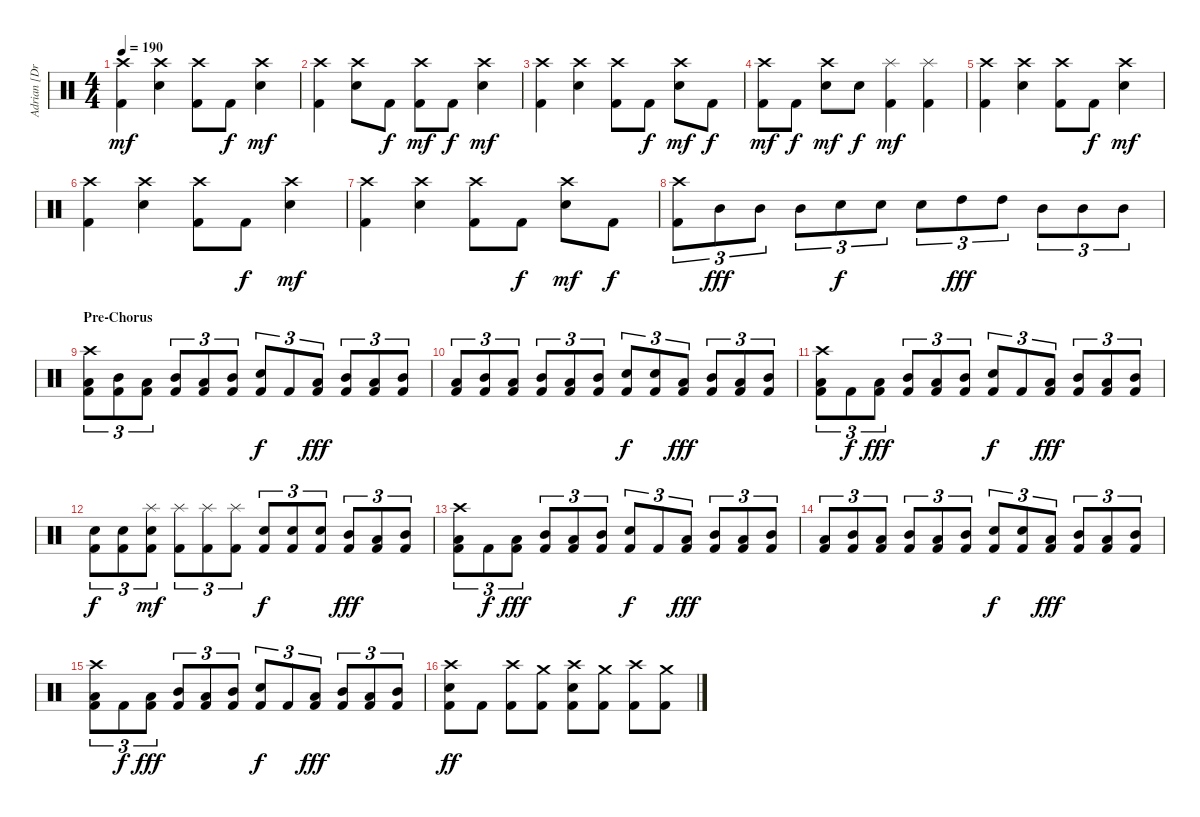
\track ("Adrian [Drums]" "Adrian [Dr") {instrument percussion}
\staff {score}
\articulation defaults
\ts (4 4)
\tempo 190
\clef neutral
\ks c
("Crash high (hit)" "Kick (hit) 2").4{dy mf} ("Crash high (hit)" "Electric Snare (hit)").4 ("Crash high (hit)" "Kick (hit) 2").8 "Kick (hit) 2".8{dy f} ("Crash high (hit)" "Electric Snare (hit)").4{dy mf} |
("Crash high (hit)" "Kick (hit) 2").4 ("Crash high (hit)" "Electric Snare (hit)").8 "Kick (hit) 2".8{dy f} ("Crash high (hit)" "Kick (hit) 2").8{dy mf} "Kick (hit) 2".8{dy f} ("Crash high (hit)" "Electric Snare (hit)").4{dy mf} |
("Crash high (hit)" "Kick (hit) 2").4 ("Crash high (hit)" "Electric Snare (hit)").4 ("Crash high (hit)" "Kick (hit) 2").8 "Kick (hit) 2".8{dy f} ("Crash high (hit)" "Electric Snare (hit)").8{dy mf} "Kick (hit) 2".8{dy f} |
("Crash high (hit)" "Kick (hit) 2").8{dy mf} "Kick (hit) 2".8{dy f} ("Crash high (hit)" "Electric Snare (hit)").8{dy mf} "Electric Snare (hit)".8{dy f} ("Splash (hit)" "Kick (hit) 2").4{dy mf} ("Splash (hit)" "Kick (hit) 2").4 |
("Crash high (hit)" "Kick (hit) 2").4 ("Crash high (hit)" "Electric Snare (hit)").4 ("Crash high (hit)" "Kick (hit) 2").8 "Kick (hit) 2".8{dy f} ("Crash high (hit)" "Electric Snare (hit)").4{dy mf} |
("Crash high (hit)" "Kick (hit) 2").4 ("Crash high (hit)" "Electric Snare (hit)").4 ("Crash high (hit)" "Kick (hit) 2").8 "Kick (hit) 2".8{dy f} ("Crash high (hit)" "Electric Snare (hit)").4{dy mf} |
("Crash high (hit)" "Kick (hit) 2").4 ("Crash high (hit)" "Electric Snare (hit)").4 ("Crash high (hit)" "Kick (hit) 2").8 "Kick (hit) 2".8{dy f} ("Crash high (hit)" "Electric Snare (hit)").8{dy mf} "Kick (hit) 2".8{dy f} |
("Crash high (hit)" "Kick (hit) 2").8{tu (3 2)} "Mid Tom (hit)".8{tu (3 2) dy fff} "Mid Tom (hit)".8{tu (3 2)} "Mid Tom (hit)".8{tu (3 2)} "Electric Snare (hit)".8{tu (3 2) dy f} "Electric Snare (hit)".8{tu (3 2)} "Electric Snare (hit)".8{tu (3 2)} "High Tom (hit)".8{tu (3 2) dy fff} "High Tom (hit)".8{tu (3 2)} "Mid Tom (hit)".8{tu (3 2)} "Mid Tom (hit)".8{tu (3 2)} "Mid Tom (hit)".8{tu (3 2)} |
\section ("" "Pre-Chorus")
("Crash high (hit)" "Low Tom (hit)" "Kick (hit) 2").8{tu (3 2)} ("Mid Tom (hit)" "Kick (hit) 2").8{tu (3 2)} ("Low Tom (hit)" "Kick (hit) 2").8{tu (3 2)} ("Mid Tom (hit)" "Kick (hit) 2").8{tu (3 2)} ("Low Tom (hit)" "Kick (hit) 2").8{tu (3 2)} ("Mid Tom (hit)" "Kick (hit) 2").8{tu (3 2)} ("Electric Snare (hit)" "Kick (hit) 2").8{tu (3 2) dy f} "Kick (hit) 2".8{tu (3 2)} ("Low Tom (hit)" "Kick (hit) 2").8{tu (3 2) dy fff} ("Mid Tom (hit)" "Kick (hit) 2").8{tu (3 2)} ("Low Tom (hit)" "Kick (hit) 2").8{tu (3 2)} ("Mid Tom (hit)" "Kick (hit) 2").8{tu (3 2)} |
("Low Tom (hit)" "Kick (hit) 2").8{tu (3 2)} ("Mid Tom (hit)" "Kick (hit) 2").8{tu (3 2)} ("Low Tom (hit)" "Kick (hit) 2").8{tu (3 2)} ("Mid Tom (hit)" "Kick (hit) 2").8{tu (3 2)} ("Low Tom (hit)" "Kick (hit) 2").8{tu (3 2)} ("Mid Tom (hit)" "Kick (hit) 2").8{tu (3 2)} ("Electric Snare (hit)" "Kick (hit) 2").8{tu (3 2) dy f} ("Electric Snare (hit)" "Kick (hit) 2").8{tu (3 2)} ("Low Tom (hit)" "Kick (hit) 2").8{tu (3 2) dy fff} ("Mid Tom (hit)" "Kick (hit) 2").8{tu (3 2)} ("Low Tom (hit)" "Kick (hit) 2").8{tu (3 2)} ("Mid Tom (hit)" "Kick (hit) 2").8{tu (3 2)} |
("Crash high (hit)" "Low Tom (hit)" "Kick (hit) 2").8{tu (3 2)} "Kick (hit) 2".8{tu (3 2) dy f} ("Low Tom (hit)" "Kick (hit) 2").8{tu (3 2) dy fff} ("Mid Tom (hit)" "Kick (hit) 2").8{tu (3 2)} ("Low Tom (hit)" "Kick (hit) 2").8{tu (3 2)} ("Mid Tom (hit)" "Kick (hit) 2").8{tu (3 2)} ("Electric Snare (hit)" "Kick (hit) 2").8{tu (3 2) dy f} "Kick (hit) 2".8{tu (3 2)} ("Low Tom (hit)" "Kick (hit) 2").8{tu (3 2) dy fff} ("Mid Tom (hit)" "Kick (hit) 2").8{tu (3 2)} ("Low Tom (hit)" "Kick (hit) 2").8{tu (3 2)} ("Mid Tom (hit)" "Kick (hit) 2").8{tu (3 2)} |
("Electric Snare (hit)" "Kick (hit) 2").8{tu (3 2) dy f} ("Electric Snare (hit)" "Kick (hit) 2").8{tu (3 2)} ("Splash (hit)" "Electric Snare (hit)" "Kick (hit) 2").8{tu (3 2) dy mf} ("Splash (hit)" "Kick (hit) 2").8{tu (3 2)} ("Splash (hit)" "Kick (hit) 2").8{tu (3 2)} ("Splash (hit)" "Kick (hit) 2").8{tu (3 2)} ("Electric Snare (hit)" "Kick (hit) 2").8{tu (3 2) dy f} ("Electric Snare (hit)" "Kick (hit) 2").8{tu (3 2)} ("Electric Snare (hit)" "Kick (hit) 2").8{tu (3 2)} ("Mid Tom (hit)" "Kick (hit) 2").8{tu (3 2) dy fff} ("Low Tom (hit)" "Kick (hit) 2").8{tu (3 2)} ("Mid Tom (hit)" "Kick (hit) 2").8{tu (3 2)} |
("Crash high (hit)" "Low Tom (hit)" "Kick (hit) 2").8{tu (3 2)} "Kick (hit) 2".8{tu (3 2) dy f} ("Low Tom (hit)" "Kick (hit) 2").8{tu (3 2) dy fff} ("Mid Tom (hit)" "Kick (hit) 2").8{tu (3 2)} ("Low Tom (hit)" "Kick (hit) 2").8{tu (3 2)} ("Mid Tom (hit)" "Kick (hit) 2").8{tu (3 2)} ("Electric Snare (hit)" "Kick (hit) 2").8{tu (3 2) dy f} "Kick (hit) 2".8{tu (3 2)} ("Low Tom (hit)" "Kick (hit) 2").8{tu (3 2) dy fff} ("Mid Tom (hit)" "Kick (hit) 2").8{tu (3 2)} ("Low Tom (hit)" "Kick (hit) 2").8{tu (3 2)} ("Mid Tom (hit)" "Kick (hit) 2").8{tu (3 2)} |
("Low Tom (hit)" "Kick (hit) 2").8{tu (3 2)} ("Mid Tom (hit)" "Kick (hit) 2").8{tu (3 2)} ("Low Tom (hit)" "Kick (hit) 2").8{tu (3 2)} ("Mid Tom (hit)" "Kick (hit) 2").8{tu (3 2)} ("Low Tom (hit)" "Kick (hit) 2").8{tu (3 2)} ("Mid Tom (hit)" "Kick (hit) 2").8{tu (3 2)} ("Electric Snare (hit)" "Kick (hit) 2").8{tu (3 2) dy f} ("Electric Snare (hit)" "Kick (hit) 2").8{tu (3 2)} ("Low Tom (hit)" "Kick (hit) 2").8{tu (3 2) dy fff} ("Mid Tom (hit)" "Kick (hit) 2").8{tu (3 2)} ("Low Tom (hit)" "Kick (hit) 2").8{tu (3 2)} ("Mid Tom (hit)" "Kick (hit) 2").8{tu (3 2)} |
("Crash high (hit)" "Low Tom (hit)" "Kick (hit) 2").8{tu (3 2)} "Kick (hit) 2".8{tu (3 2) dy f} ("Low Tom (hit)" "Kick (hit) 2").8{tu (3 2) dy fff} ("Mid Tom (hit)" "Kick (hit) 2").8{tu (3 2)} ("Low Tom (hit)" "Kick (hit) 2").8{tu (3 2)} ("Mid Tom (hit)" "Kick (hit) 2").8{tu (3 2)} ("Electric Snare (hit)" "Kick (hit) 2").8{tu (3 2) dy f} "Kick (hit) 2".8{tu (3 2)} ("Low Tom (hit)" "Kick (hit) 2").8{tu (3 2) dy fff} ("Mid Tom (hit)" "Kick (hit) 2").8{tu (3 2)} ("Low Tom (hit)" "Kick (hit) 2").8{tu (3 2)} ("Mid Tom (hit)" "Kick (hit) 2").8{tu (3 2)} |
("Crash high (hit)" "Electric Snare (hit)" "Kick (hit) 2").8{dy ff} "Kick (hit) 2".8 ("Crash high (hit)" "Kick (hit) 2").8 ("Crash medium (hit)" "Kick (hit) 2").8 ("Crash high (hit)" "Electric Snare (hit)" "Kick (hit) 2").8 ("Crash medium (hit)" "Kick (hit) 2").8 ("Crash high (hit)" "Kick (hit) 2").8 ("Crash medium (hit)" "Kick (hit) 2").8
